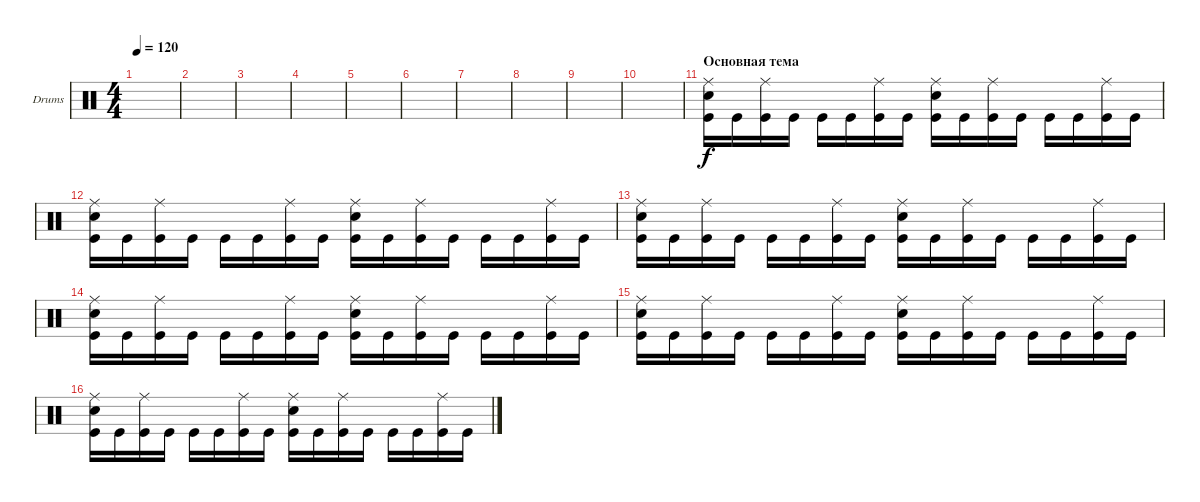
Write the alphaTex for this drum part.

\defaultSystemsLayout 4
\bracketExtendMode groupsimilarinstruments
\firstSystemTrackNameOrientation horizontal
\otherSystemsTrackNameOrientation horizontal
\track ("Drumkit" "Drums") {instrument percussion}
\staff {score}
\articulation defaults
\ts (4 4)
\tempo 120
\clef neutral
\scale
0.333333
\ks c
|
\scale
0.333333 |
\scale
0.333333 |
\scale
0.333333 |
\scale
0.333333 |
\scale
0.333333 |
\scale
0.333333 |
\scale
0.333333 |
\scale
0.333333 |
\scale
0.333333 |
\section ("" "Основная тема")
\scale
0.333333 ("Ride (middle)" "Snare (hit) 2" "Kick (hit)").16 "Kick (hit)".16 ("Ride (middle)" "Kick (hit)").16 "Kick (hit)".16 "Kick (hit)".16 "Kick (hit)".16 ("Ride (middle)" "Kick (hit)").16 "Kick (hit)".16 ("Ride (middle)" "Snare (hit) 2" "Kick (hit)").16 "Kick (hit)".16 ("Ride (middle)" "Kick (hit)").16 "Kick (hit)".16 "Kick (hit)".16 "Kick (hit)".16 ("Ride (middle)" "Kick (hit)").16 "Kick (hit)".16 |
\scale
0.333333 ("Ride (middle)" "Snare (hit) 2" "Kick (hit)").16 "Kick (hit)".16 ("Ride (middle)" "Kick (hit)").16 "Kick (hit)".16 "Kick (hit)".16 "Kick (hit)".16 ("Ride (middle)" "Kick (hit)").16 "Kick (hit)".16 ("Ride (middle)" "Snare (hit) 2" "Kick (hit)").16 "Kick (hit)".16 ("Ride (middle)" "Kick (hit)").16 "Kick (hit)".16 "Kick (hit)".16 "Kick (hit)".16 ("Ride (middle)" "Kick (hit)").16 "Kick (hit)".16 |
\scale
0.333333 ("Ride (middle)" "Snare (hit) 2" "Kick (hit)").16 "Kick (hit)".16 ("Ride (middle)" "Kick (hit)").16 "Kick (hit)".16 "Kick (hit)".16 "Kick (hit)".16 ("Ride (middle)" "Kick (hit)").16 "Kick (hit)".16 ("Ride (middle)" "Snare (hit) 2" "Kick (hit)").16 "Kick (hit)".16 ("Ride (middle)" "Kick (hit)").16 "Kick (hit)".16 "Kick (hit)".16 "Kick (hit)".16 ("Ride (middle)" "Kick (hit)").16 "Kick (hit)".16 |
\scale
0.333333 ("Ride (middle)" "Snare (hit) 2" "Kick (hit)").16 "Kick (hit)".16 ("Ride (middle)" "Kick (hit)").16 "Kick (hit)".16 "Kick (hit)".16 "Kick (hit)".16 ("Ride (middle)" "Kick (hit)").16 "Kick (hit)".16 ("Ride (middle)" "Snare (hit) 2" "Kick (hit)").16 "Kick (hit)".16 ("Ride (middle)" "Kick (hit)").16 "Kick (hit)".16 "Kick (hit)".16 "Kick (hit)".16 ("Ride (middle)" "Kick (hit)").16 "Kick (hit)".16 |
\scale
0.333333 ("Ride (middle)" "Snare (hit) 2" "Kick (hit)").16 "Kick (hit)".16 ("Ride (middle)" "Kick (hit)").16 "Kick (hit)".16 "Kick (hit)".16 "Kick (hit)".16 ("Ride (middle)" "Kick (hit)").16 "Kick (hit)".16 ("Ride (middle)" "Snare (hit) 2" "Kick (hit)").16 "Kick (hit)".16 ("Ride (middle)" "Kick (hit)").16 "Kick (hit)".16 "Kick (hit)".16 "Kick (hit)".16 ("Ride (middle)" "Kick (hit)").16 "Kick (hit)".16 |
\scale
0.333333 ("Ride (middle)" "Snare (hit) 2" "Kick (hit)").16 "Kick (hit)".16 ("Ride (middle)" "Kick (hit)").16 "Kick (hit)".16 "Kick (hit)".16 "Kick (hit)".16 ("Ride (middle)" "Kick (hit)").16 "Kick (hit)".16 ("Ride (middle)" "Snare (hit) 2" "Kick (hit)").16 "Kick (hit)".16 ("Ride (middle)" "Kick (hit)").16 "Kick (hit)".16 "Kick (hit)".16 "Kick (hit)".16 ("Ride (middle)" "Kick (hit)").16 "Kick (hit)".16
